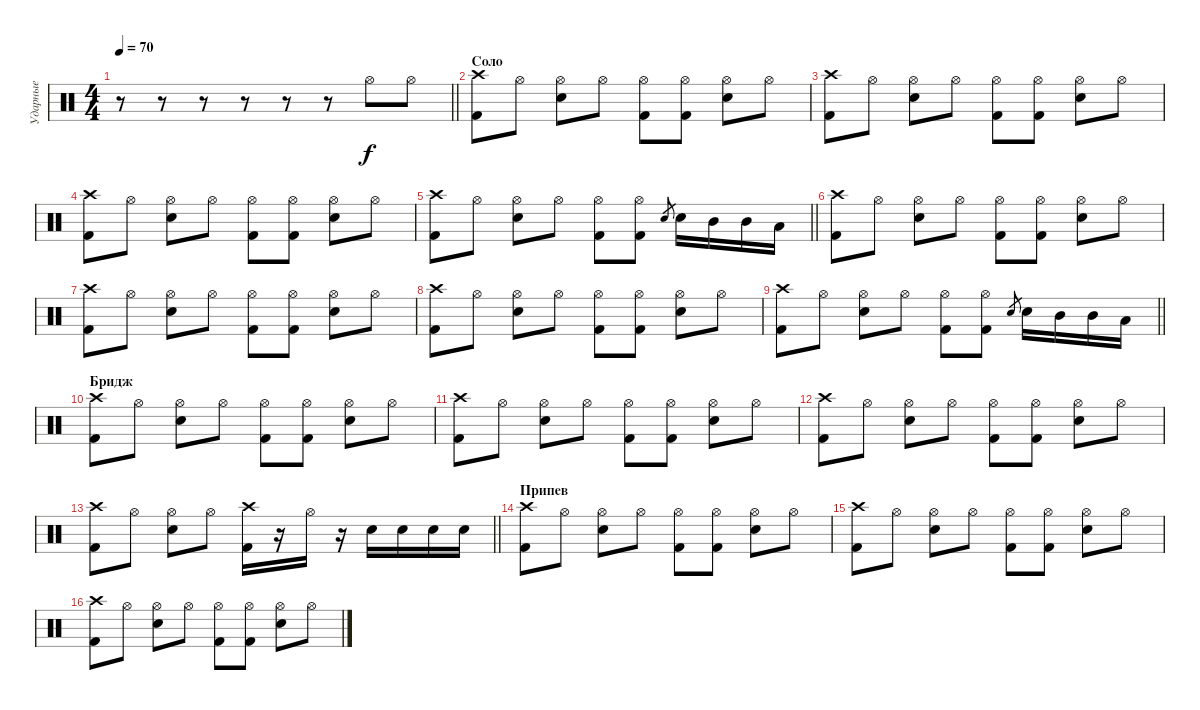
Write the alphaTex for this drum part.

\track ("Ударные" "Ударные") {instrument percussion}
\staff {score}
\articulation defaults
\ts (4 4)
\tempo 70
\clef neutral
\barLineRight lightlight
\ks c
r.8{dy f} r.8 r.8 r.8 r.8 r.8 "Hi-Hat (open)".8 "Hi-Hat (open)".8 |
\section ("" "Соло")
("Crash high (hit)" "Kick (hit) 2").8 "Hi-Hat (open)".8 ("Hi-Hat (open)" "Snare (hit) 2").8 "Hi-Hat (open)".8 ("Hi-Hat (open)" "Kick (hit) 2").8 ("Hi-Hat (open)" "Kick (hit) 2").8 ("Hi-Hat (open)" "Snare (hit) 2").8 "Hi-Hat (open)".8 |
("Crash high (hit)" "Kick (hit) 2").8 "Hi-Hat (open)".8 ("Hi-Hat (open)" "Snare (hit) 2").8 "Hi-Hat (open)".8 ("Hi-Hat (open)" "Kick (hit) 2").8 ("Hi-Hat (open)" "Kick (hit) 2").8 ("Hi-Hat (open)" "Snare (hit) 2").8 "Hi-Hat (open)".8 |
("Crash high (hit)" "Kick (hit) 2").8 "Hi-Hat (open)".8 ("Hi-Hat (open)" "Snare (hit) 2").8 "Hi-Hat (open)".8 ("Hi-Hat (open)" "Kick (hit) 2").8 ("Hi-Hat (open)" "Kick (hit) 2").8 ("Hi-Hat (open)" "Snare (hit) 2").8 "Hi-Hat (open)".8 |
\barLineRight lightlight
("Crash high (hit)" "Kick (hit) 2").8 "Hi-Hat (open)".8 ("Hi-Hat (open)" "Snare (hit) 2").8 "Hi-Hat (open)".8 ("Hi-Hat (open)" "Kick (hit) 2").8 ("Hi-Hat (open)" "Kick (hit) 2").8 "Snare (hit) 2".8{gr} "Snare (hit) 2".16 "Mid Tom (hit)".16 "Mid Tom (hit)".16 "Low Tom (hit)".16 |
\section ("" "")
("Crash high (hit)" "Kick (hit) 2").8 "Hi-Hat (open)".8 ("Hi-Hat (open)" "Snare (hit) 2").8 "Hi-Hat (open)".8 ("Hi-Hat (open)" "Kick (hit) 2").8 ("Hi-Hat (open)" "Kick (hit) 2").8 ("Hi-Hat (open)" "Snare (hit) 2").8 "Hi-Hat (open)".8 |
("Crash high (hit)" "Kick (hit) 2").8 "Hi-Hat (open)".8 ("Hi-Hat (open)" "Snare (hit) 2").8 "Hi-Hat (open)".8 ("Hi-Hat (open)" "Kick (hit) 2").8 ("Hi-Hat (open)" "Kick (hit) 2").8 ("Hi-Hat (open)" "Snare (hit) 2").8 "Hi-Hat (open)".8 |
("Crash high (hit)" "Kick (hit) 2").8 "Hi-Hat (open)".8 ("Hi-Hat (open)" "Snare (hit) 2").8 "Hi-Hat (open)".8 ("Hi-Hat (open)" "Kick (hit) 2").8 ("Hi-Hat (open)" "Kick (hit) 2").8 ("Hi-Hat (open)" "Snare (hit) 2").8 "Hi-Hat (open)".8 |
\barLineRight lightlight
("Crash high (hit)" "Kick (hit) 2").8 "Hi-Hat (open)".8 ("Hi-Hat (open)" "Snare (hit) 2").8 "Hi-Hat (open)".8 ("Hi-Hat (open)" "Kick (hit) 2").8 ("Hi-Hat (open)" "Kick (hit) 2").8 "Snare (hit) 2".8{gr} "Snare (hit) 2".16 "Mid Tom (hit)".16 "Mid Tom (hit)".16 "Low Tom (hit)".16 |
\section ("" "Бридж")
("Crash high (hit)" "Kick (hit) 2").8 "Hi-Hat (open)".8 ("Hi-Hat (open)" "Snare (hit) 2").8 "Hi-Hat (open)".8 ("Hi-Hat (open)" "Kick (hit) 2").8 ("Hi-Hat (open)" "Kick (hit) 2").8 ("Hi-Hat (open)" "Snare (hit) 2").8 "Hi-Hat (open)".8 |
("Crash high (hit)" "Kick (hit) 2").8 "Hi-Hat (open)".8 ("Hi-Hat (open)" "Snare (hit) 2").8 "Hi-Hat (open)".8 ("Hi-Hat (open)" "Kick (hit) 2").8 ("Hi-Hat (open)" "Kick (hit) 2").8 ("Hi-Hat (open)" "Snare (hit) 2").8 "Hi-Hat (open)".8 |
("Crash high (hit)" "Kick (hit) 2").8 "Hi-Hat (open)".8 ("Hi-Hat (open)" "Snare (hit) 2").8 "Hi-Hat (open)".8 ("Hi-Hat (open)" "Kick (hit) 2").8 ("Hi-Hat (open)" "Kick (hit) 2").8 ("Hi-Hat (open)" "Snare (hit) 2").8 "Hi-Hat (open)".8 |
\barLineRight lightlight
("Crash high (hit)" "Kick (hit) 2").8 "Hi-Hat (open)".8 ("Hi-Hat (open)" "Snare (hit) 2").8 "Hi-Hat (open)".8 ("Crash high (hit)" "Kick (hit) 2").16 r.16 "Hi-Hat (open)".16 r.16 "Snare (hit) 2".16 "Snare (hit) 2".16 "Snare (hit) 2".16 "Snare (hit) 2".16 |
\section ("" "Припев")
("Crash high (hit)" "Kick (hit) 2").8 "Hi-Hat (open)".8 ("Hi-Hat (open)" "Snare (hit) 2").8 "Hi-Hat (open)".8 ("Hi-Hat (open)" "Kick (hit) 2").8 ("Hi-Hat (open)" "Kick (hit) 2").8 ("Hi-Hat (open)" "Snare (hit) 2").8 "Hi-Hat (open)".8 |
("Crash high (hit)" "Kick (hit) 2").8 "Hi-Hat (open)".8 ("Hi-Hat (open)" "Snare (hit) 2").8 "Hi-Hat (open)".8 ("Hi-Hat (open)" "Kick (hit) 2").8 ("Hi-Hat (open)" "Kick (hit) 2").8 ("Hi-Hat (open)" "Snare (hit) 2").8 "Hi-Hat (open)".8 |
("Crash high (hit)" "Kick (hit) 2").8 "Hi-Hat (open)".8 ("Hi-Hat (open)" "Snare (hit) 2").8 "Hi-Hat (open)".8 ("Hi-Hat (open)" "Kick (hit) 2").8 ("Hi-Hat (open)" "Kick (hit) 2").8 ("Hi-Hat (open)" "Snare (hit) 2").8 "Hi-Hat (open)".8
